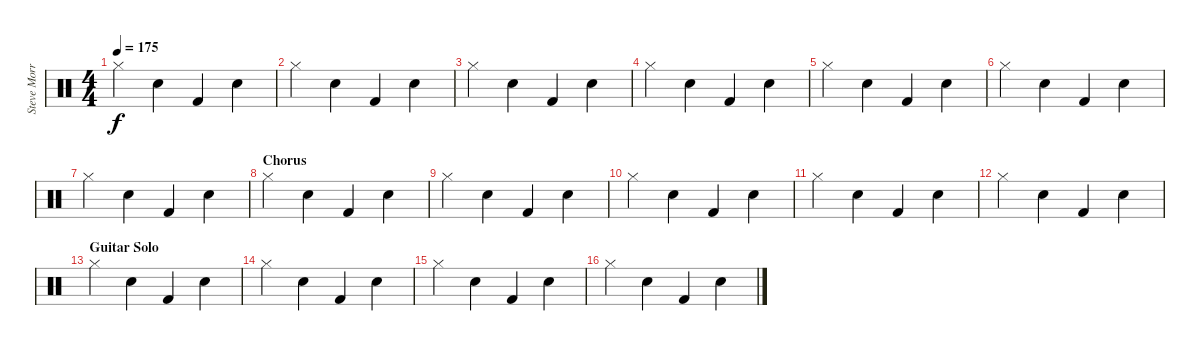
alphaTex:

\track ("Steve Morris" "Steve Morr") {instrument percussion}
\staff {score}
\articulation defaults
\ts (4 4)
\tempo 175
\clef neutral
\ks c "Hi-Hat (closed)".4{dy f} "Snare (hit) 2".4 "Kick (hit) 2".4 "Snare (hit) 2".4
|
"Hi-Hat (closed)".4 "Snare (hit) 2".4 "Kick (hit) 2".4 "Snare (hit) 2".4 |
"Hi-Hat (closed)".4 "Snare (hit) 2".4 "Kick (hit) 2".4 "Snare (hit) 2".4 |
"Hi-Hat (closed)".4 "Snare (hit) 2".4 "Kick (hit) 2".4 "Snare (hit) 2".4 |
"Hi-Hat (closed)".4 "Snare (hit) 2".4 "Kick (hit) 2".4 "Snare (hit) 2".4 |
"Hi-Hat (closed)".4 "Snare (hit) 2".4 "Kick (hit) 2".4 "Snare (hit) 2".4 |
"Hi-Hat (closed)".4 "Snare (hit) 2".4 "Kick (hit) 2".4 "Snare (hit) 2".4 |
\section ("" "Chorus")
"Hi-Hat (closed)".4 "Snare (hit) 2".4 "Kick (hit) 2".4 "Snare (hit) 2".4 |
"Hi-Hat (closed)".4 "Snare (hit) 2".4 "Kick (hit) 2".4 "Snare (hit) 2".4 |
"Hi-Hat (closed)".4 "Snare (hit) 2".4 "Kick (hit) 2".4 "Snare (hit) 2".4 |
"Hi-Hat (closed)".4 "Snare (hit) 2".4 "Kick (hit) 2".4 "Snare (hit) 2".4 |
"Hi-Hat (closed)".4 "Snare (hit) 2".4 "Kick (hit) 2".4 "Snare (hit) 2".4 |
\section ("" "Guitar Solo")
"Hi-Hat (closed)".4 "Snare (hit) 2".4 "Kick (hit) 2".4 "Snare (hit) 2".4 |
"Hi-Hat (closed)".4 "Snare (hit) 2".4 "Kick (hit) 2".4 "Snare (hit) 2".4 |
"Hi-Hat (closed)".4 "Snare (hit) 2".4 "Kick (hit) 2".4 "Snare (hit) 2".4 |
"Hi-Hat (closed)".4 "Snare (hit) 2".4 "Kick (hit) 2".4 "Snare (hit) 2".4
